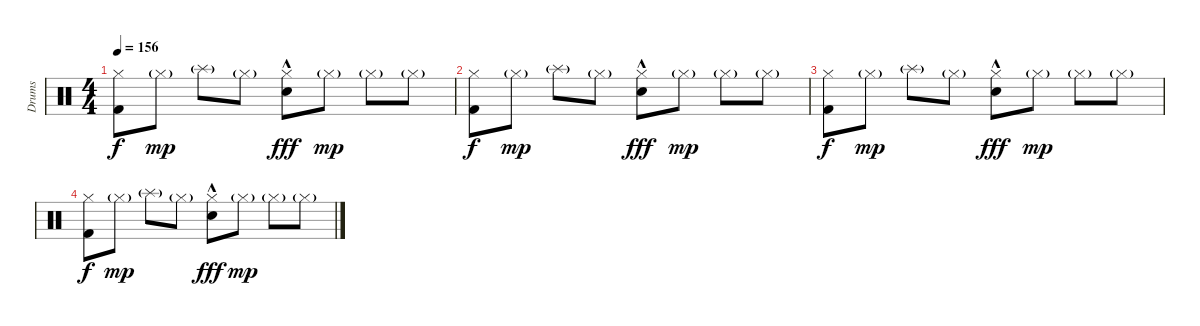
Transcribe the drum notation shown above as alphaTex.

\track ("Drums" "Drums") {instrument percussion}
\staff {score}
\articulation defaults
\ts (4 4)
\tempo 156
\clef neutral
\ks c
("Hi-Hat (closed)" "Kick (hit) 2").8{dy f volume 0} "Hi-Hat (closed)"{g}.8{dy mp} "Splash (hit)"{g}.8 "Hi-Hat (closed)"{g}.8 ("Hi-Hat (closed)" "Electric Snare (hit)"{hac}).8{dy fff} "Hi-Hat (closed)"{g}.8{dy mp} "Hi-Hat (closed)"{g}.8 "Hi-Hat (closed)"{g}.8 |
("Hi-Hat (closed)" "Kick (hit) 2").8{dy f} "Hi-Hat (closed)"{g}.8{dy mp} "Splash (hit)"{g}.8 "Hi-Hat (closed)"{g}.8 ("Hi-Hat (closed)" "Electric Snare (hit)"{hac}).8{dy fff} "Hi-Hat (closed)"{g}.8{dy mp} "Hi-Hat (closed)"{g}.8 "Hi-Hat (closed)"{g}.8 |
("Hi-Hat (closed)" "Kick (hit) 2").8{dy f} "Hi-Hat (closed)"{g}.8{dy mp} "Splash (hit)"{g}.8 "Hi-Hat (closed)"{g}.8 ("Hi-Hat (closed)" "Electric Snare (hit)"{hac}).8{dy fff} "Hi-Hat (closed)"{g}.8{dy mp} "Hi-Hat (closed)"{g}.8 "Hi-Hat (closed)"{g}.8 |
("Hi-Hat (closed)" "Kick (hit) 2").8{dy f} "Hi-Hat (closed)"{g}.8{dy mp} "Splash (hit)"{g}.8 "Hi-Hat (closed)"{g}.8 ("Hi-Hat (closed)" "Electric Snare (hit)"{hac}).8{dy fff} "Hi-Hat (closed)"{g}.8{dy mp} "Hi-Hat (closed)"{g}.8 "Hi-Hat (closed)"{g}.8
